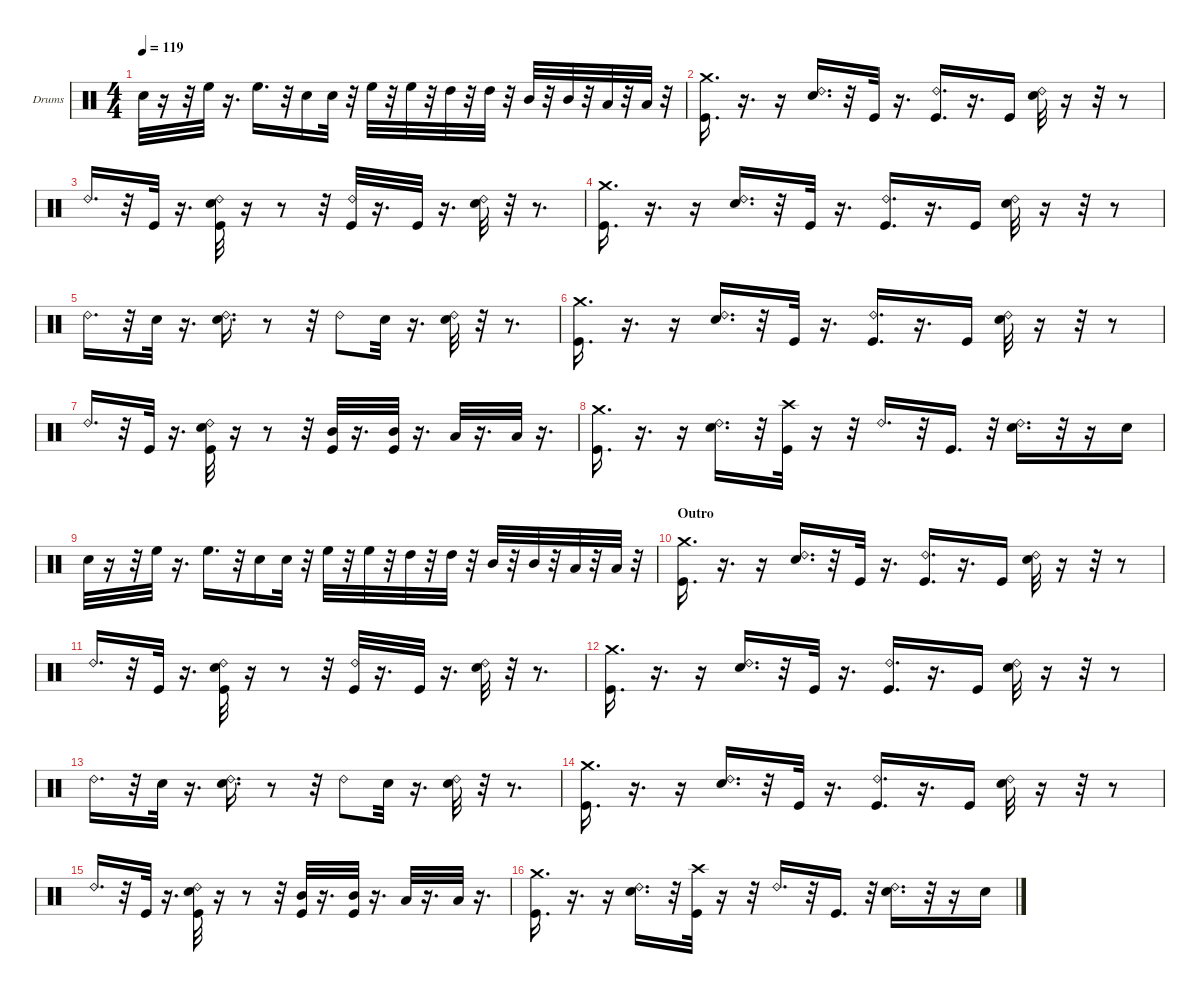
\hideDynamics
\bracketExtendMode groupsimilarinstruments
\firstSystemTrackNameOrientation horizontal
\otherSystemsTrackNameOrientation horizontal
\track ("Drums" "Drums") {instrument percussion}
\staff {score}
\articulation defaults
\ts (4 4)
\tempo 119
\clef neutral
\ks c "Snare (hit) 2".32{dy mf}
r.16 r.32 "High Floor Tom (hit)".32 r.16{d} "High Floor Tom (hit)".16{d} r.32 "Snare (hit) 2".16 "Snare (hit) 2".32 r.32 "High Floor Tom (hit)".32 r.32 "High Floor Tom (hit)".32 r.32 "High Tom (hit)".32 r.32 "High Tom (hit)".32 r.32 "Mid Tom (hit)".32 r.32 "Mid Tom (hit)".32 r.32 "Low Tom (hit)".32 r.32 "Low Tom (hit)".32 r.32 |
("Crash medium (hit)" "Kick (hit)").16{d} r.16{d} r.16 ("Snare (hit) 2" "Ride (bell) 2").16{d} r.32 "Kick (hit)".32 r.16{d} ("Ride (bell) 2" "Kick (hit)").16{d} r.16{d} "Kick (hit)".16 ("Snare (hit) 2" "Ride (bell) 2").32 r.16 r.32 r.8 |
"Ride (bell) 2".16{d} r.32 "Kick (hit)".32 r.16{d} ("Ride (bell) 2" "Kick (hit)" "Snare (hit) 2").32 r.16 r.8 r.32 ("Ride (bell) 2" "Kick (hit)").32 r.16{d} "Kick (hit)".32 r.16{d} ("Ride (bell) 2" "Snare (hit) 2").32 r.32 r.8{d} |
("Crash medium (hit)" "Kick (hit)").16{d} r.16{d} r.16 ("Snare (hit) 2" "Ride (bell) 2").16{d} r.32 "Kick (hit)".32 r.16{d} ("Ride (bell) 2" "Kick (hit)").16{d} r.16{d} "Kick (hit)".16 ("Snare (hit) 2" "Ride (bell) 2").32 r.16 r.32 r.8 |
"Ride (bell) 2".16{d} r.32 "Snare (hit) 2".32 r.16{d} ("Ride (bell) 2" "Snare (hit) 2").16{d} r.8 r.32 "Ride (bell) 2".8 "Snare (hit) 2".32 r.16{d} ("Ride (bell) 2" "Snare (hit) 2").32 r.32 r.8{d} |
("Crash medium (hit)" "Kick (hit)").16{d} r.16{d} r.16 ("Snare (hit) 2" "Ride (bell) 2").16{d} r.32 "Kick (hit)".32 r.16{d} ("Ride (bell) 2" "Kick (hit)").16{d} r.16{d} "Kick (hit)".16 ("Snare (hit) 2" "Ride (bell) 2").32 r.16 r.32 r.8 |
"Ride (bell) 2".16{d} r.32 "Kick (hit)".32 r.16{d} ("Ride (bell) 2" "Kick (hit)" "Snare (hit) 2").32 r.16 r.8 r.32 ("Kick (hit)" "Mid Tom (hit)").32 r.16{d} ("Kick (hit)" "Mid Tom (hit)").32 r.16{d} "Low Tom (hit)".32 r.16{d} "Low Tom (hit)".32 r.16{d} |
("Kick (hit)" "Crash medium (hit)").16{d} r.16{d} r.16 ("Snare (hit) 2" "Ride (bell) 2").16{d} r.32 ("Crash high (hit)" "Kick (hit)").32 r.16 r.32 "Ride (bell) 2".16{d} r.32 "Kick (hit)".16{d} r.32 ("Snare (hit) 2" "Ride (bell) 2").16{d} r.32 r.16 "Snare (hit) 2".16 |
"Snare (hit) 2".32 r.16 r.32 "High Floor Tom (hit)".32 r.16{d} "High Floor Tom (hit)".16{d} r.32 "Snare (hit) 2".16 "Snare (hit) 2".32 r.32 "High Floor Tom (hit)".32 r.32 "High Floor Tom (hit)".32 r.32 "High Tom (hit)".32 r.32 "High Tom (hit)".32 r.32 "Mid Tom (hit)".32 r.32 "Mid Tom (hit)".32 r.32 "Low Tom (hit)".32 r.32 "Low Tom (hit)".32 r.32 |
\section ("" "Outro")
("Crash medium (hit)" "Kick (hit)").16{d} r.16{d} r.16 ("Snare (hit) 2" "Ride (bell) 2").16{d} r.32 "Kick (hit)".32 r.16{d} ("Ride (bell) 2" "Kick (hit)").16{d} r.16{d} "Kick (hit)".16 ("Snare (hit) 2" "Ride (bell) 2").32 r.16 r.32 r.8 |
"Ride (bell) 2".16{d} r.32 "Kick (hit)".32 r.16{d} ("Ride (bell) 2" "Kick (hit)" "Snare (hit) 2").32 r.16 r.8 r.32 ("Ride (bell) 2" "Kick (hit)").32 r.16{d} "Kick (hit)".32 r.16{d} ("Ride (bell) 2" "Snare (hit) 2").32 r.32 r.8{d} |
("Crash medium (hit)" "Kick (hit)").16{d} r.16{d} r.16 ("Snare (hit) 2" "Ride (bell) 2").16{d} r.32 "Kick (hit)".32 r.16{d} ("Ride (bell) 2" "Kick (hit)").16{d} r.16{d} "Kick (hit)".16 ("Snare (hit) 2" "Ride (bell) 2").32 r.16 r.32 r.8 |
"Ride (bell) 2".16{d} r.32 "Snare (hit) 2".32 r.16{d} ("Ride (bell) 2" "Snare (hit) 2").16{d} r.8 r.32 "Ride (bell) 2".8 "Snare (hit) 2".32 r.16{d} ("Ride (bell) 2" "Snare (hit) 2").32 r.32 r.8{d} |
("Crash medium (hit)" "Kick (hit)").16{d} r.16{d} r.16 ("Snare (hit) 2" "Ride (bell) 2").16{d} r.32 "Kick (hit)".32 r.16{d} ("Ride (bell) 2" "Kick (hit)").16{d} r.16{d} "Kick (hit)".16 ("Snare (hit) 2" "Ride (bell) 2").32 r.16 r.32 r.8 |
"Ride (bell) 2".16{d} r.32 "Kick (hit)".32 r.16{d} ("Ride (bell) 2" "Kick (hit)" "Snare (hit) 2").32 r.16 r.8 r.32 ("Kick (hit)" "Mid Tom (hit)").32 r.16{d} ("Kick (hit)" "Mid Tom (hit)").32 r.16{d} "Low Tom (hit)".32 r.16{d} "Low Tom (hit)".32 r.16{d} |
("Kick (hit)" "Crash medium (hit)").16{d} r.16{d} r.16 ("Snare (hit) 2" "Ride (bell) 2").16{d} r.32 ("Crash high (hit)" "Kick (hit)").32 r.16 r.32 "Ride (bell) 2".16{d} r.32 "Kick (hit)".16{d} r.32 ("Snare (hit) 2" "Ride (bell) 2").16{d} r.32 r.16 "Snare (hit) 2".16
